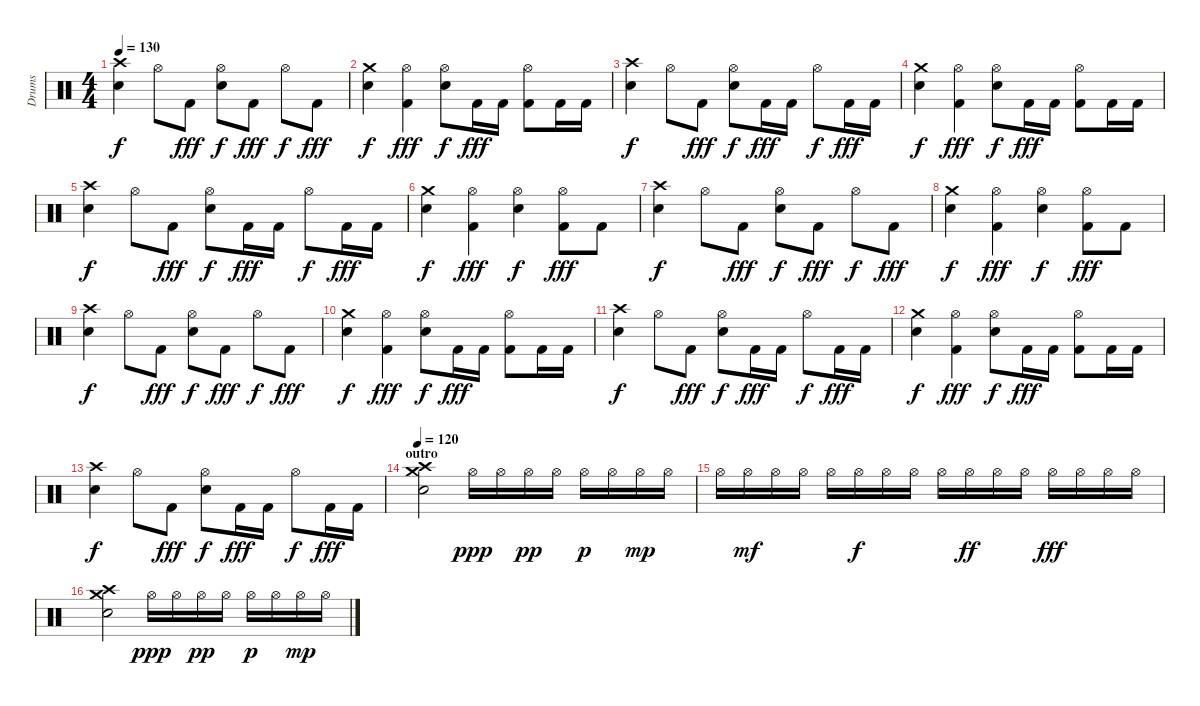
\track ("Drums" "Drums") {instrument percussion}
\staff {score}
\articulation defaults
\ts (4 4)
\tempo 130
\clef neutral
\ks c
("Crash high (hit)" "Electric Snare (hit)").4{dy f} "Hi-Hat (open)".8 "Kick (hit) 2".8{dy fff} ("Hi-Hat (open)" "Electric Snare (hit)").8{dy f} "Kick (hit) 2".8{dy fff} "Hi-Hat (open)".8{dy f} "Kick (hit) 2".8{dy fff} |
("Crash medium (hit)" "Electric Snare (hit)").4{dy f} ("Hi-Hat (open)" "Kick (hit) 2").4{dy fff} ("Hi-Hat (open)" "Electric Snare (hit)").8{dy f} "Kick (hit) 2".16{dy fff} "Kick (hit) 2".16 ("Hi-Hat (open)" "Kick (hit) 2").8 "Kick (hit) 2".16 "Kick (hit) 2".16 |
("Crash high (hit)" "Electric Snare (hit)").4{dy f} "Hi-Hat (open)".8 "Kick (hit) 2".8{dy fff} ("Hi-Hat (open)" "Electric Snare (hit)").8{dy f} "Kick (hit) 2".16{dy fff} "Kick (hit) 2".16 "Hi-Hat (open)".8{dy f} "Kick (hit) 2".16{dy fff} "Kick (hit) 2".16 |
("Crash medium (hit)" "Electric Snare (hit)").4{dy f} ("Hi-Hat (open)" "Kick (hit) 2").4{dy fff} ("Hi-Hat (open)" "Electric Snare (hit)").8{dy f} "Kick (hit) 2".16{dy fff} "Kick (hit) 2".16 ("Hi-Hat (open)" "Kick (hit) 2").8 "Kick (hit) 2".16 "Kick (hit) 2".16 |
("Crash high (hit)" "Electric Snare (hit)").4{dy f} "Hi-Hat (open)".8 "Kick (hit) 2".8{dy fff} ("Hi-Hat (open)" "Electric Snare (hit)").8{dy f} "Kick (hit) 2".16{dy fff} "Kick (hit) 2".16 "Hi-Hat (open)".8{dy f} "Kick (hit) 2".16{dy fff} "Kick (hit) 2".16 |
("Crash medium (hit)" "Electric Snare (hit)").4{dy f} ("Hi-Hat (open)" "Kick (hit) 2").4{dy fff} ("Hi-Hat (open)" "Electric Snare (hit)").4{dy f} ("Hi-Hat (open)" "Kick (hit) 2").8{dy fff} "Kick (hit) 2".8 |
("Crash high (hit)" "Electric Snare (hit)").4{dy f} "Hi-Hat (open)".8 "Kick (hit) 2".8{dy fff} ("Hi-Hat (open)" "Electric Snare (hit)").8{dy f} "Kick (hit) 2".8{dy fff} "Hi-Hat (open)".8{dy f} "Kick (hit) 2".8{dy fff} |
("Crash medium (hit)" "Electric Snare (hit)").4{dy f} ("Hi-Hat (open)" "Kick (hit) 2").4{dy fff} ("Hi-Hat (open)" "Electric Snare (hit)").4{dy f} ("Hi-Hat (open)" "Kick (hit) 2").8{dy fff} "Kick (hit) 2".8 |
("Crash high (hit)" "Electric Snare (hit)").4{dy f} "Hi-Hat (open)".8 "Kick (hit) 2".8{dy fff} ("Hi-Hat (open)" "Electric Snare (hit)").8{dy f} "Kick (hit) 2".8{dy fff} "Hi-Hat (open)".8{dy f} "Kick (hit) 2".8{dy fff} |
("Crash medium (hit)" "Electric Snare (hit)").4{dy f} ("Hi-Hat (open)" "Kick (hit) 2").4{dy fff} ("Hi-Hat (open)" "Electric Snare (hit)").8{dy f} "Kick (hit) 2".16{dy fff} "Kick (hit) 2".16 ("Hi-Hat (open)" "Kick (hit) 2").8 "Kick (hit) 2".16 "Kick (hit) 2".16 |
("Crash high (hit)" "Electric Snare (hit)").4{dy f} "Hi-Hat (open)".8 "Kick (hit) 2".8{dy fff} ("Hi-Hat (open)" "Electric Snare (hit)").8{dy f} "Kick (hit) 2".16{dy fff} "Kick (hit) 2".16 "Hi-Hat (open)".8{dy f} "Kick (hit) 2".16{dy fff} "Kick (hit) 2".16 |
("Crash medium (hit)" "Electric Snare (hit)").4{dy f} ("Hi-Hat (open)" "Kick (hit) 2").4{dy fff} ("Hi-Hat (open)" "Electric Snare (hit)").8{dy f} "Kick (hit) 2".16{dy fff} "Kick (hit) 2".16 ("Hi-Hat (open)" "Kick (hit) 2").8 "Kick (hit) 2".16 "Kick (hit) 2".16 |
("Crash high (hit)" "Electric Snare (hit)").4{dy f} "Hi-Hat (open)".8 "Kick (hit) 2".8{dy fff} ("Hi-Hat (open)" "Electric Snare (hit)").8{dy f} "Kick (hit) 2".16{dy fff} "Kick (hit) 2".16 "Hi-Hat (open)".8{dy f} "Kick (hit) 2".16{dy fff} "Kick (hit) 2".16 |
\section ("" "outro")
\tempo 120
("Crash high (hit)" "Crash medium (hit)" "Electric Snare (hit)").2 "Hi-Hat (open)".16{dy ppp} "Hi-Hat (open)".16 "Hi-Hat (open)".16{dy pp} "Hi-Hat (open)".16 "Hi-Hat (open)".16{dy p} "Hi-Hat (open)".16 "Hi-Hat (open)".16{dy mp} "Hi-Hat (open)".16 |
"Hi-Hat (open)".16 "Hi-Hat (open)".16{dy mf} "Hi-Hat (open)".16 "Hi-Hat (open)".16 "Hi-Hat (open)".16 "Hi-Hat (open)".16{dy f} "Hi-Hat (open)".16 "Hi-Hat (open)".16 "Hi-Hat (open)".16 "Hi-Hat (open)".16{dy ff} "Hi-Hat (open)".16 "Hi-Hat (open)".16 "Hi-Hat (open)".16{dy fff} "Hi-Hat (open)".16 "Hi-Hat (open)".16 "Hi-Hat (open)".16 |
("Crash high (hit)" "Crash medium (hit)" "Electric Snare (hit)").2 "Hi-Hat (open)".16{dy ppp} "Hi-Hat (open)".16 "Hi-Hat (open)".16{dy pp} "Hi-Hat (open)".16 "Hi-Hat (open)".16{dy p} "Hi-Hat (open)".16 "Hi-Hat (open)".16{dy mp} "Hi-Hat (open)".16
